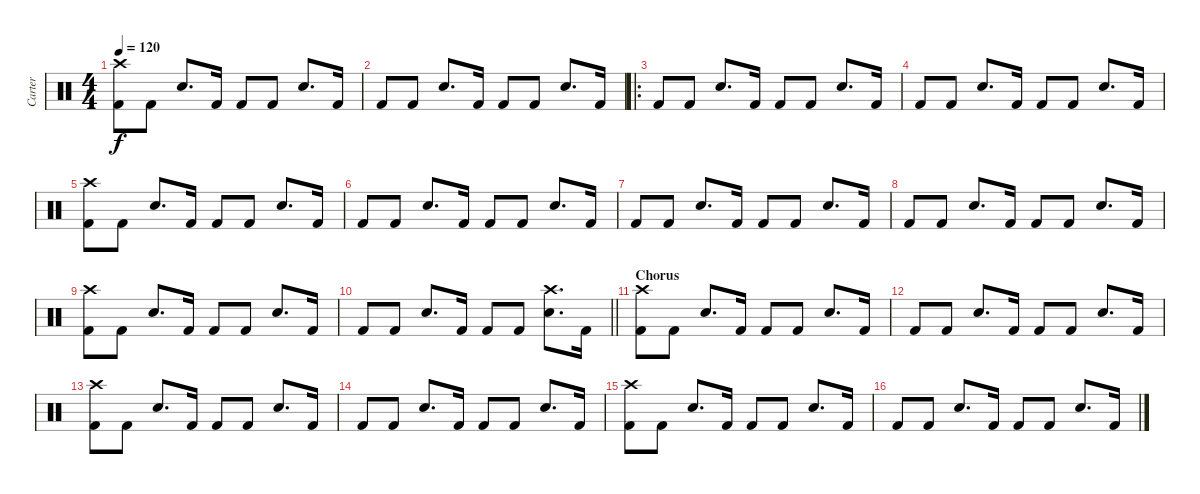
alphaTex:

\track ("Carter" "Carter") {instrument percussion}
\staff {score}
\articulation defaults
\ts (4 4)
\tempo 120
\clef neutral
\ks c
("Kick (hit) 2" "Crash high (hit)").8{dy f} "Kick (hit) 2".8 "Electric Snare (hit)".8{d} "Kick (hit) 2".16 "Kick (hit) 2".8 "Kick (hit) 2".8 "Electric Snare (hit)".8{d} "Kick (hit) 2".16 |
"Kick (hit) 2".8 "Kick (hit) 2".8 "Electric Snare (hit)".8{d} "Kick (hit) 2".16 "Kick (hit) 2".8 "Kick (hit) 2".8 "Electric Snare (hit)".8{d} "Kick (hit) 2".16 |
\ro "Kick (hit) 2".8 "Kick (hit) 2".8 "Electric Snare (hit)".8{d} "Kick (hit) 2".16 "Kick (hit) 2".8 "Kick (hit) 2".8 "Electric Snare (hit)".8{d} "Kick (hit) 2".16
|
"Kick (hit) 2".8 "Kick (hit) 2".8 "Electric Snare (hit)".8{d} "Kick (hit) 2".16 "Kick (hit) 2".8 "Kick (hit) 2".8 "Electric Snare (hit)".8{d} "Kick (hit) 2".16 |
("Kick (hit) 2" "Crash high (hit)").8 "Kick (hit) 2".8 "Electric Snare (hit)".8{d} "Kick (hit) 2".16 "Kick (hit) 2".8 "Kick (hit) 2".8 "Electric Snare (hit)".8{d} "Kick (hit) 2".16 |
"Kick (hit) 2".8 "Kick (hit) 2".8 "Electric Snare (hit)".8{d} "Kick (hit) 2".16 "Kick (hit) 2".8 "Kick (hit) 2".8 "Electric Snare (hit)".8{d} "Kick (hit) 2".16 |
"Kick (hit) 2".8 "Kick (hit) 2".8 "Electric Snare (hit)".8{d} "Kick (hit) 2".16 "Kick (hit) 2".8 "Kick (hit) 2".8 "Electric Snare (hit)".8{d} "Kick (hit) 2".16 |
"Kick (hit) 2".8 "Kick (hit) 2".8 "Electric Snare (hit)".8{d} "Kick (hit) 2".16 "Kick (hit) 2".8 "Kick (hit) 2".8 "Electric Snare (hit)".8{d} "Kick (hit) 2".16 |
("Kick (hit) 2" "Crash high (hit)").8 "Kick (hit) 2".8 "Electric Snare (hit)".8{d} "Kick (hit) 2".16 "Kick (hit) 2".8 "Kick (hit) 2".8 "Electric Snare (hit)".8{d} "Kick (hit) 2".16 |
\barLineRight lightlight "Kick (hit) 2".8 "Kick (hit) 2".8 "Electric Snare (hit)".8{d} "Kick (hit) 2".16 "Kick (hit) 2".8 "Kick (hit) 2".8
("Electric Snare (hit)" "Crash high (hit)").8{d} "Kick (hit) 2".16 |
\section ("" "Chorus")
("Kick (hit) 2" "Crash high (hit)").8 "Kick (hit) 2".8 "Electric Snare (hit)".8{d} "Kick (hit) 2".16 "Kick (hit) 2".8 "Kick (hit) 2".8 "Electric Snare (hit)".8{d} "Kick (hit) 2".16 |
"Kick (hit) 2".8 "Kick (hit) 2".8 "Electric Snare (hit)".8{d} "Kick (hit) 2".16 "Kick (hit) 2".8 "Kick (hit) 2".8 "Electric Snare (hit)".8{d} "Kick (hit) 2".16 |
("Kick (hit) 2" "Crash high (hit)").8 "Kick (hit) 2".8 "Electric Snare (hit)".8{d} "Kick (hit) 2".16 "Kick (hit) 2".8 "Kick (hit) 2".8 "Electric Snare (hit)".8{d} "Kick (hit) 2".16 |
"Kick (hit) 2".8 "Kick (hit) 2".8 "Electric Snare (hit)".8{d} "Kick (hit) 2".16 "Kick (hit) 2".8 "Kick (hit) 2".8 "Electric Snare (hit)".8{d} "Kick (hit) 2".16 |
("Kick (hit) 2" "Crash high (hit)").8 "Kick (hit) 2".8 "Electric Snare (hit)".8{d} "Kick (hit) 2".16 "Kick (hit) 2".8 "Kick (hit) 2".8 "Electric Snare (hit)".8{d} "Kick (hit) 2".16 |
"Kick (hit) 2".8 "Kick (hit) 2".8 "Electric Snare (hit)".8{d} "Kick (hit) 2".16 "Kick (hit) 2".8 "Kick (hit) 2".8 "Electric Snare (hit)".8{d} "Kick (hit) 2".16
